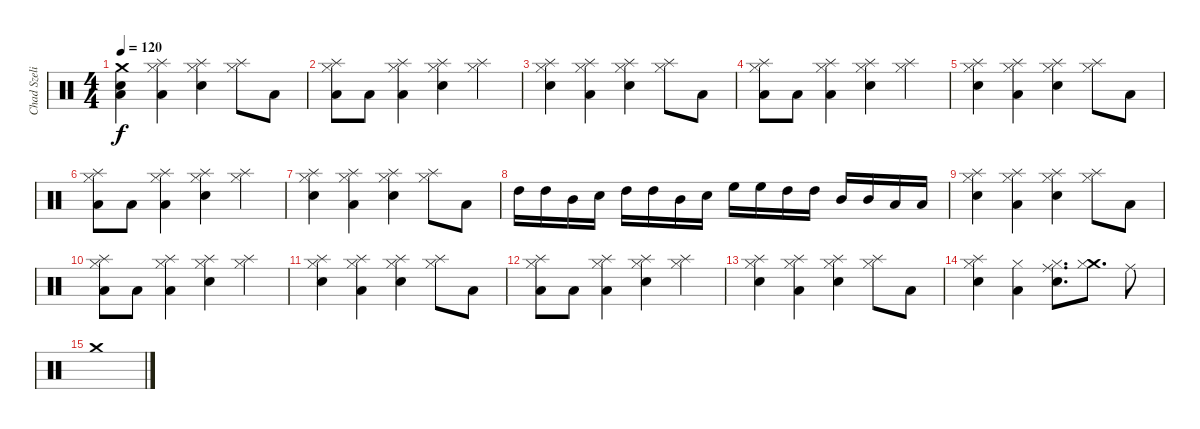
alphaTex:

\track ("Chad Szeliga (batteria)" "Chad Szeli") {instrument percussion}
\staff {score}
\articulation defaults
\ts (4 4)
\tempo 120
\clef neutral
\ks c
("Crash medium (hit)" "Snare (hit) 2" "Low Floor Tom (hit)").4{dy f} ("Splash (hit)" "Low Floor Tom (hit)" "Hi-Hat (closed)").4 ("Splash (hit)" "Snare (hit) 2" "Hi-Hat (closed)").4 ("Splash (hit)" "Hi-Hat (closed)").8 "Low Floor Tom (hit)".8 |
("Splash (hit)" "Low Floor Tom (hit)" "Hi-Hat (closed)").8 "Low Floor Tom (hit)".8 ("Splash (hit)" "Low Floor Tom (hit)" "Hi-Hat (closed)").4 ("Splash (hit)" "Snare (hit) 2" "Hi-Hat (closed)").4 ("Splash (hit)" "Hi-Hat (closed)").4 |
("Splash (hit)" "Snare (hit) 2" "Hi-Hat (closed)").4 ("Splash (hit)" "Low Floor Tom (hit)" "Hi-Hat (closed)").4 ("Splash (hit)" "Snare (hit) 2" "Hi-Hat (closed)").4 ("Splash (hit)" "Hi-Hat (closed)").8 "Low Floor Tom (hit)".8 |
("Splash (hit)" "Low Floor Tom (hit)" "Hi-Hat (closed)").8 "Low Floor Tom (hit)".8 ("Splash (hit)" "Low Floor Tom (hit)" "Hi-Hat (closed)").4 ("Splash (hit)" "Snare (hit) 2" "Hi-Hat (closed)").4 ("Splash (hit)" "Hi-Hat (closed)").4 |
("Splash (hit)" "Snare (hit) 2" "Hi-Hat (closed)").4 ("Splash (hit)" "Low Floor Tom (hit)" "Hi-Hat (closed)").4 ("Splash (hit)" "Snare (hit) 2" "Hi-Hat (closed)").4 ("Splash (hit)" "Hi-Hat (closed)").8 "Low Floor Tom (hit)".8 |
("Splash (hit)" "Low Floor Tom (hit)" "Hi-Hat (closed)").8 "Low Floor Tom (hit)".8 ("Splash (hit)" "Low Floor Tom (hit)" "Hi-Hat (closed)").4 ("Splash (hit)" "Snare (hit) 2" "Hi-Hat (closed)").4 ("Splash (hit)" "Hi-Hat (closed)").4 |
("Splash (hit)" "Snare (hit) 2" "Hi-Hat (closed)").4 ("Splash (hit)" "Low Floor Tom (hit)" "Hi-Hat (closed)").4 ("Splash (hit)" "Snare (hit) 2" "Hi-Hat (closed)").4 ("Splash (hit)" "Hi-Hat (closed)").8 "Low Floor Tom (hit)".8 |
"High Tom (hit)".16 "High Tom (hit)".16 "Mid Tom (hit)".16 "Snare (hit) 2".16 "High Tom (hit)".16 "High Tom (hit)".16 "Mid Tom (hit)".16 "Snare (hit) 2".16 "High Floor Tom (hit)".16 "High Floor Tom (hit)".16 "High Tom (hit)".16 "High Tom (hit)".16 "Mid Tom (hit)".16 "Mid Tom (hit)".16 "Low Tom (hit)".16 "Low Tom (hit)".16 |
("Splash (hit)" "Snare (hit) 2" "Hi-Hat (closed)").4 ("Splash (hit)" "Low Floor Tom (hit)" "Hi-Hat (closed)").4 ("Splash (hit)" "Snare (hit) 2" "Hi-Hat (closed)").4 ("Splash (hit)" "Hi-Hat (closed)").8 "Low Floor Tom (hit)".8 |
("Splash (hit)" "Low Floor Tom (hit)" "Hi-Hat (closed)").8 "Low Floor Tom (hit)".8 ("Splash (hit)" "Low Floor Tom (hit)" "Hi-Hat (closed)").4 ("Splash (hit)" "Snare (hit) 2" "Hi-Hat (closed)").4 ("Splash (hit)" "Hi-Hat (closed)").4 |
("Splash (hit)" "Snare (hit) 2" "Hi-Hat (closed)").4 ("Splash (hit)" "Low Floor Tom (hit)" "Hi-Hat (closed)").4 ("Splash (hit)" "Snare (hit) 2" "Hi-Hat (closed)").4 ("Splash (hit)" "Hi-Hat (closed)").8 "Low Floor Tom (hit)".8 |
("Splash (hit)" "Low Floor Tom (hit)" "Hi-Hat (closed)").8 "Low Floor Tom (hit)".8 ("Splash (hit)" "Low Floor Tom (hit)" "Hi-Hat (closed)").4 ("Splash (hit)" "Snare (hit) 2" "Hi-Hat (closed)").4 ("Splash (hit)" "Hi-Hat (closed)").4 |
("Splash (hit)" "Snare (hit) 2" "Hi-Hat (closed)").4 ("Splash (hit)" "Low Floor Tom (hit)" "Hi-Hat (closed)").4 ("Splash (hit)" "Snare (hit) 2" "Hi-Hat (closed)").4 ("Splash (hit)" "Hi-Hat (closed)").8 "Low Floor Tom (hit)".8 |
("Splash (hit)" "Snare (hit) 2" "Hi-Hat (closed)").4 ("Low Floor Tom (hit)" "Hi-Hat (closed)").4 ("Ride (middle)" "Snare (hit) 2" "Hi-Hat (closed)").8{d} ("Crash medium (hit)" "Hi-Hat (closed)").8{d} "Ride (middle)".8 |
"Crash medium (hit)".1
